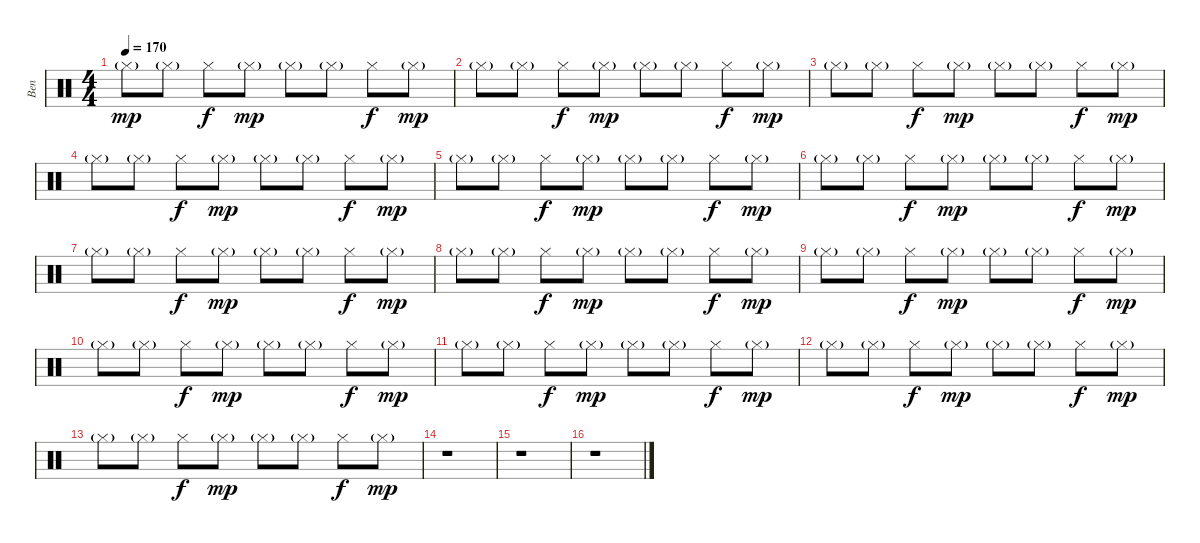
\track ("Ben" "Ben") {instrument percussion}
\staff {score}
\articulation defaults
\ts (4 4)
\tempo 170
\clef neutral
\ks c "Hi-Hat (closed)"{g}.8{dy mp} "Hi-Hat (closed)"{g}.8 "Hi-Hat (closed)".8{dy f} "Hi-Hat (closed)"{g}.8{dy mp} "Hi-Hat (closed)"{g}.8 "Hi-Hat (closed)"{g}.8 "Hi-Hat (closed)".8{dy f} "Hi-Hat (closed)"{g}.8{dy mp}
|
"Hi-Hat (closed)"{g}.8 "Hi-Hat (closed)"{g}.8 "Hi-Hat (closed)".8{dy f} "Hi-Hat (closed)"{g}.8{dy mp} "Hi-Hat (closed)"{g}.8 "Hi-Hat (closed)"{g}.8 "Hi-Hat (closed)".8{dy f} "Hi-Hat (closed)"{g}.8{dy mp} |
"Hi-Hat (closed)"{g}.8 "Hi-Hat (closed)"{g}.8 "Hi-Hat (closed)".8{dy f} "Hi-Hat (closed)"{g}.8{dy mp} "Hi-Hat (closed)"{g}.8 "Hi-Hat (closed)"{g}.8 "Hi-Hat (closed)".8{dy f} "Hi-Hat (closed)"{g}.8{dy mp} |
"Hi-Hat (closed)"{g}.8 "Hi-Hat (closed)"{g}.8 "Hi-Hat (closed)".8{dy f} "Hi-Hat (closed)"{g}.8{dy mp} "Hi-Hat (closed)"{g}.8 "Hi-Hat (closed)"{g}.8 "Hi-Hat (closed)".8{dy f} "Hi-Hat (closed)"{g}.8{dy mp} |
"Hi-Hat (closed)"{g}.8 "Hi-Hat (closed)"{g}.8 "Hi-Hat (closed)".8{dy f} "Hi-Hat (closed)"{g}.8{dy mp} "Hi-Hat (closed)"{g}.8 "Hi-Hat (closed)"{g}.8 "Hi-Hat (closed)".8{dy f} "Hi-Hat (closed)"{g}.8{dy mp} |
"Hi-Hat (closed)"{g}.8 "Hi-Hat (closed)"{g}.8 "Hi-Hat (closed)".8{dy f} "Hi-Hat (closed)"{g}.8{dy mp} "Hi-Hat (closed)"{g}.8 "Hi-Hat (closed)"{g}.8 "Hi-Hat (closed)".8{dy f} "Hi-Hat (closed)"{g}.8{dy mp} |
"Hi-Hat (closed)"{g}.8 "Hi-Hat (closed)"{g}.8 "Hi-Hat (closed)".8{dy f} "Hi-Hat (closed)"{g}.8{dy mp} "Hi-Hat (closed)"{g}.8 "Hi-Hat (closed)"{g}.8 "Hi-Hat (closed)".8{dy f} "Hi-Hat (closed)"{g}.8{dy mp} |
"Hi-Hat (closed)"{g}.8 "Hi-Hat (closed)"{g}.8 "Hi-Hat (closed)".8{dy f} "Hi-Hat (closed)"{g}.8{dy mp} "Hi-Hat (closed)"{g}.8 "Hi-Hat (closed)"{g}.8 "Hi-Hat (closed)".8{dy f} "Hi-Hat (closed)"{g}.8{dy mp} |
"Hi-Hat (closed)"{g}.8 "Hi-Hat (closed)"{g}.8 "Hi-Hat (closed)".8{dy f} "Hi-Hat (closed)"{g}.8{dy mp} "Hi-Hat (closed)"{g}.8 "Hi-Hat (closed)"{g}.8 "Hi-Hat (closed)".8{dy f} "Hi-Hat (closed)"{g}.8{dy mp} |
"Hi-Hat (closed)"{g}.8 "Hi-Hat (closed)"{g}.8 "Hi-Hat (closed)".8{dy f} "Hi-Hat (closed)"{g}.8{dy mp} "Hi-Hat (closed)"{g}.8 "Hi-Hat (closed)"{g}.8 "Hi-Hat (closed)".8{dy f} "Hi-Hat (closed)"{g}.8{dy mp} |
"Hi-Hat (closed)"{g}.8 "Hi-Hat (closed)"{g}.8 "Hi-Hat (closed)".8{dy f} "Hi-Hat (closed)"{g}.8{dy mp} "Hi-Hat (closed)"{g}.8 "Hi-Hat (closed)"{g}.8 "Hi-Hat (closed)".8{dy f} "Hi-Hat (closed)"{g}.8{dy mp} |
"Hi-Hat (closed)"{g}.8 "Hi-Hat (closed)"{g}.8 "Hi-Hat (closed)".8{dy f} "Hi-Hat (closed)"{g}.8{dy mp} "Hi-Hat (closed)"{g}.8 "Hi-Hat (closed)"{g}.8 "Hi-Hat (closed)".8{dy f} "Hi-Hat (closed)"{g}.8{dy mp} |
"Hi-Hat (closed)"{g}.8 "Hi-Hat (closed)"{g}.8 "Hi-Hat (closed)".8{dy f} "Hi-Hat (closed)"{g}.8{dy mp} "Hi-Hat (closed)"{g}.8 "Hi-Hat (closed)"{g}.8 "Hi-Hat (closed)".8{dy f} "Hi-Hat (closed)"{g}.8{dy mp} |
r.1 |
r.1 |
r.1
